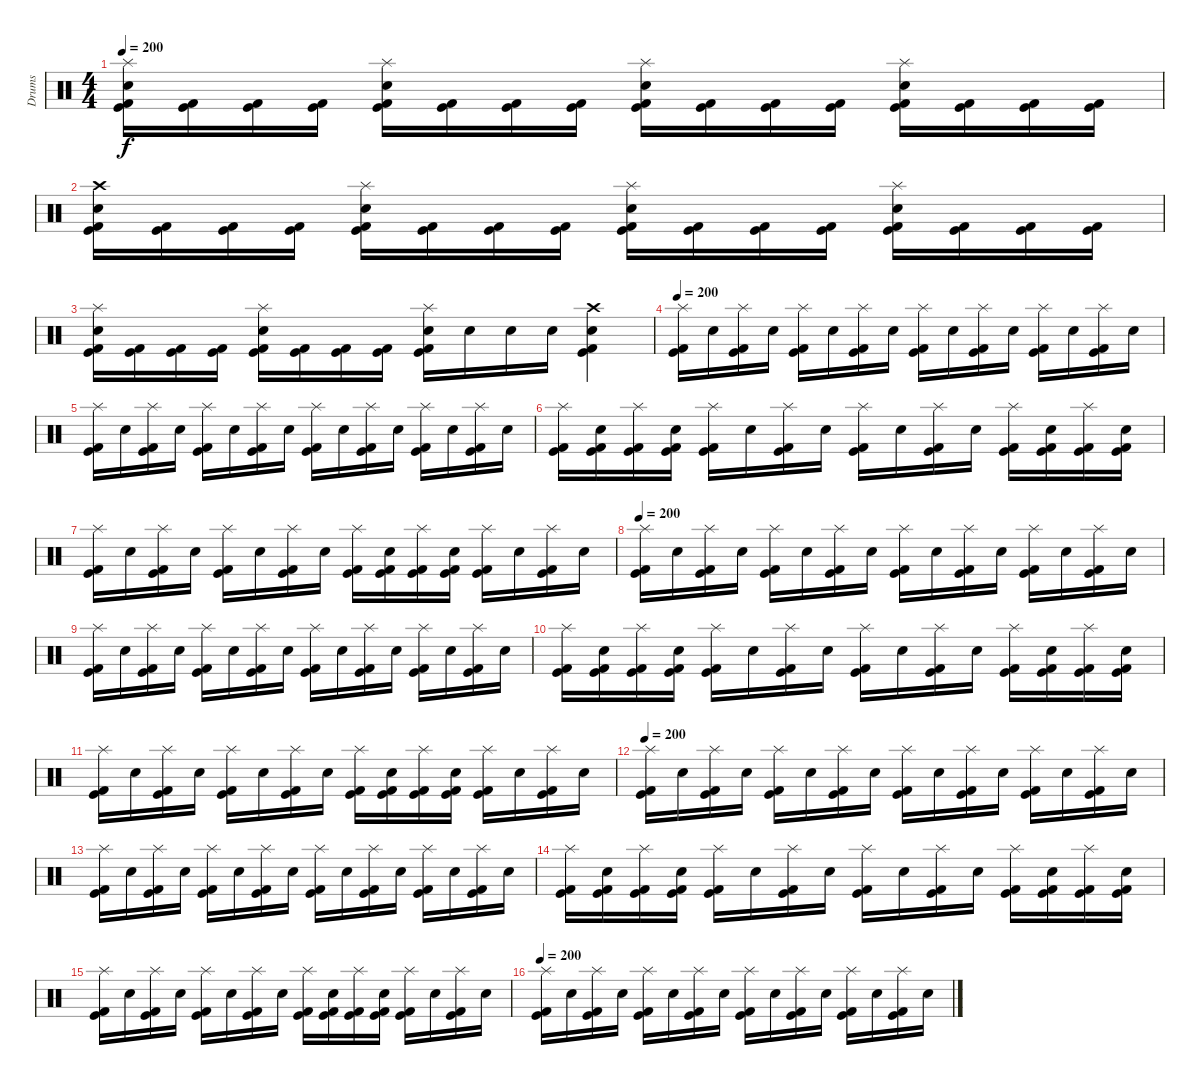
\track ("Drums" "Drums") {instrument percussion}
\staff {score}
\articulation defaults
\ts (4 4)
\tempo 200
\clef neutral
\ks c
("Splash (hit)" "Electric Snare (hit)" "Kick (hit)" "Kick (hit) 2").16{dy f} ("Kick (hit)" "Kick (hit) 2").16 ("Kick (hit)" "Kick (hit) 2").16 ("Kick (hit)" "Kick (hit) 2").16 ("Splash (hit)" "Electric Snare (hit)" "Kick (hit)" "Kick (hit) 2").16 ("Kick (hit)" "Kick (hit) 2").16 ("Kick (hit)" "Kick (hit) 2").16 ("Kick (hit)" "Kick (hit) 2").16 ("Splash (hit)" "Electric Snare (hit)" "Kick (hit)" "Kick (hit) 2").16 ("Kick (hit)" "Kick (hit) 2").16 ("Kick (hit)" "Kick (hit) 2").16 ("Kick (hit)" "Kick (hit) 2").16 ("Splash (hit)" "Electric Snare (hit)" "Kick (hit)" "Kick (hit) 2").16 ("Kick (hit)" "Kick (hit) 2").16 ("Kick (hit)" "Kick (hit) 2").16 ("Kick (hit)" "Kick (hit) 2").16 |
("Crash high (hit)" "Electric Snare (hit)" "Kick (hit)" "Kick (hit) 2").16 ("Kick (hit)" "Kick (hit) 2").16 ("Kick (hit)" "Kick (hit) 2").16 ("Kick (hit)" "Kick (hit) 2").16 ("Splash (hit)" "Electric Snare (hit)" "Kick (hit)" "Kick (hit) 2").16 ("Kick (hit)" "Kick (hit) 2").16 ("Kick (hit)" "Kick (hit) 2").16 ("Kick (hit)" "Kick (hit) 2").16 ("Splash (hit)" "Electric Snare (hit)" "Kick (hit)" "Kick (hit) 2").16 ("Kick (hit)" "Kick (hit) 2").16 ("Kick (hit)" "Kick (hit) 2").16 ("Kick (hit)" "Kick (hit) 2").16 ("Splash (hit)" "Electric Snare (hit)" "Kick (hit)" "Kick (hit) 2").16 ("Kick (hit)" "Kick (hit) 2").16 ("Kick (hit)" "Kick (hit) 2").16 ("Kick (hit)" "Kick (hit) 2").16 |
("Splash (hit)" "Electric Snare (hit)" "Kick (hit)" "Kick (hit) 2").16 ("Kick (hit)" "Kick (hit) 2").16 ("Kick (hit)" "Kick (hit) 2").16 ("Kick (hit)" "Kick (hit) 2").16 ("Splash (hit)" "Electric Snare (hit)" "Kick (hit)" "Kick (hit) 2").16 ("Kick (hit)" "Kick (hit) 2").16 ("Kick (hit)" "Kick (hit) 2").16 ("Kick (hit)" "Kick (hit) 2").16 ("Splash (hit)" "Electric Snare (hit)" "Kick (hit)" "Kick (hit) 2").16 "Electric Snare (hit)".16 "Electric Snare (hit)".16 "Electric Snare (hit)".16 ("Crash high (hit)" "Electric Snare (hit)" "Kick (hit)" "Kick (hit) 2").4 |
\tempo 200
("Splash (hit)" "Kick (hit)" "Kick (hit) 2").16 "Electric Snare (hit)".16 ("Splash (hit)" "Kick (hit)" "Kick (hit) 2").16 "Electric Snare (hit)".16 ("Splash (hit)" "Kick (hit)" "Kick (hit) 2").16 "Electric Snare (hit)".16 ("Splash (hit)" "Kick (hit)" "Kick (hit) 2").16 "Electric Snare (hit)".16 ("Splash (hit)" "Kick (hit)" "Kick (hit) 2").16 "Electric Snare (hit)".16 ("Splash (hit)" "Kick (hit)" "Kick (hit) 2").16 "Electric Snare (hit)".16 ("Splash (hit)" "Kick (hit)" "Kick (hit) 2").16 "Electric Snare (hit)".16 ("Splash (hit)" "Kick (hit)" "Kick (hit) 2").16 "Electric Snare (hit)".16 |
("Splash (hit)" "Kick (hit)" "Kick (hit) 2").16 "Electric Snare (hit)".16 ("Splash (hit)" "Kick (hit)" "Kick (hit) 2").16 "Electric Snare (hit)".16 ("Splash (hit)" "Kick (hit)" "Kick (hit) 2").16 "Electric Snare (hit)".16 ("Splash (hit)" "Kick (hit)" "Kick (hit) 2").16 "Electric Snare (hit)".16 ("Splash (hit)" "Kick (hit)" "Kick (hit) 2").16 "Electric Snare (hit)".16 ("Splash (hit)" "Kick (hit)" "Kick (hit) 2").16 "Electric Snare (hit)".16 ("Splash (hit)" "Kick (hit)" "Kick (hit) 2").16 "Electric Snare (hit)".16 ("Splash (hit)" "Kick (hit)" "Kick (hit) 2").16 "Electric Snare (hit)".16 |
("Splash (hit)" "Kick (hit)" "Kick (hit) 2").16 ("Electric Snare (hit)" "Kick (hit)" "Kick (hit) 2").16 ("Splash (hit)" "Kick (hit)" "Kick (hit) 2").16 ("Electric Snare (hit)" "Kick (hit)" "Kick (hit) 2").16 ("Splash (hit)" "Kick (hit)" "Kick (hit) 2").16 "Electric Snare (hit)".16 ("Splash (hit)" "Kick (hit)" "Kick (hit) 2").16 "Electric Snare (hit)".16 ("Splash (hit)" "Kick (hit)" "Kick (hit) 2").16 "Electric Snare (hit)".16 ("Splash (hit)" "Kick (hit)" "Kick (hit) 2").16 "Electric Snare (hit)".16 ("Splash (hit)" "Kick (hit)" "Kick (hit) 2").16 ("Electric Snare (hit)" "Kick (hit)" "Kick (hit) 2").16 ("Splash (hit)" "Kick (hit)" "Kick (hit) 2").16 ("Electric Snare (hit)" "Kick (hit)" "Kick (hit) 2").16 |
("Splash (hit)" "Kick (hit)" "Kick (hit) 2").16 "Electric Snare (hit)".16 ("Splash (hit)" "Kick (hit)" "Kick (hit) 2").16 "Electric Snare (hit)".16 ("Splash (hit)" "Kick (hit)" "Kick (hit) 2").16 "Electric Snare (hit)".16 ("Splash (hit)" "Kick (hit)" "Kick (hit) 2").16 "Electric Snare (hit)".16 ("Splash (hit)" "Kick (hit)" "Kick (hit) 2").16 ("Electric Snare (hit)" "Kick (hit)" "Kick (hit) 2").16 ("Splash (hit)" "Kick (hit)" "Kick (hit) 2").16 ("Electric Snare (hit)" "Kick (hit)" "Kick (hit) 2").16 ("Splash (hit)" "Kick (hit)" "Kick (hit) 2").16 "Electric Snare (hit)".16 ("Splash (hit)" "Kick (hit)" "Kick (hit) 2").16 "Electric Snare (hit)".16 |
\tempo 200
("Splash (hit)" "Kick (hit)" "Kick (hit) 2").16 "Electric Snare (hit)".16 ("Splash (hit)" "Kick (hit)" "Kick (hit) 2").16 "Electric Snare (hit)".16 ("Splash (hit)" "Kick (hit)" "Kick (hit) 2").16 "Electric Snare (hit)".16 ("Splash (hit)" "Kick (hit)" "Kick (hit) 2").16 "Electric Snare (hit)".16 ("Splash (hit)" "Kick (hit)" "Kick (hit) 2").16 "Electric Snare (hit)".16 ("Splash (hit)" "Kick (hit)" "Kick (hit) 2").16 "Electric Snare (hit)".16 ("Splash (hit)" "Kick (hit)" "Kick (hit) 2").16 "Electric Snare (hit)".16 ("Splash (hit)" "Kick (hit)" "Kick (hit) 2").16 "Electric Snare (hit)".16 |
("Splash (hit)" "Kick (hit)" "Kick (hit) 2").16 "Electric Snare (hit)".16 ("Splash (hit)" "Kick (hit)" "Kick (hit) 2").16 "Electric Snare (hit)".16 ("Splash (hit)" "Kick (hit)" "Kick (hit) 2").16 "Electric Snare (hit)".16 ("Splash (hit)" "Kick (hit)" "Kick (hit) 2").16 "Electric Snare (hit)".16 ("Splash (hit)" "Kick (hit)" "Kick (hit) 2").16 "Electric Snare (hit)".16 ("Splash (hit)" "Kick (hit)" "Kick (hit) 2").16 "Electric Snare (hit)".16 ("Splash (hit)" "Kick (hit)" "Kick (hit) 2").16 "Electric Snare (hit)".16 ("Splash (hit)" "Kick (hit)" "Kick (hit) 2").16 "Electric Snare (hit)".16 |
("Splash (hit)" "Kick (hit)" "Kick (hit) 2").16 ("Electric Snare (hit)" "Kick (hit)" "Kick (hit) 2").16 ("Splash (hit)" "Kick (hit)" "Kick (hit) 2").16 ("Electric Snare (hit)" "Kick (hit)" "Kick (hit) 2").16 ("Splash (hit)" "Kick (hit)" "Kick (hit) 2").16 "Electric Snare (hit)".16 ("Splash (hit)" "Kick (hit)" "Kick (hit) 2").16 "Electric Snare (hit)".16 ("Splash (hit)" "Kick (hit)" "Kick (hit) 2").16 "Electric Snare (hit)".16 ("Splash (hit)" "Kick (hit)" "Kick (hit) 2").16 "Electric Snare (hit)".16 ("Splash (hit)" "Kick (hit)" "Kick (hit) 2").16 ("Electric Snare (hit)" "Kick (hit)" "Kick (hit) 2").16 ("Splash (hit)" "Kick (hit)" "Kick (hit) 2").16 ("Electric Snare (hit)" "Kick (hit)" "Kick (hit) 2").16 |
("Splash (hit)" "Kick (hit)" "Kick (hit) 2").16 "Electric Snare (hit)".16 ("Splash (hit)" "Kick (hit)" "Kick (hit) 2").16 "Electric Snare (hit)".16 ("Splash (hit)" "Kick (hit)" "Kick (hit) 2").16 "Electric Snare (hit)".16 ("Splash (hit)" "Kick (hit)" "Kick (hit) 2").16 "Electric Snare (hit)".16 ("Splash (hit)" "Kick (hit)" "Kick (hit) 2").16 ("Electric Snare (hit)" "Kick (hit)" "Kick (hit) 2").16 ("Splash (hit)" "Kick (hit)" "Kick (hit) 2").16 ("Electric Snare (hit)" "Kick (hit)" "Kick (hit) 2").16 ("Splash (hit)" "Kick (hit)" "Kick (hit) 2").16 "Electric Snare (hit)".16 ("Splash (hit)" "Kick (hit)" "Kick (hit) 2").16 "Electric Snare (hit)".16 |
\tempo 200
("Splash (hit)" "Kick (hit)" "Kick (hit) 2").16 "Electric Snare (hit)".16 ("Splash (hit)" "Kick (hit)" "Kick (hit) 2").16 "Electric Snare (hit)".16 ("Splash (hit)" "Kick (hit)" "Kick (hit) 2").16 "Electric Snare (hit)".16 ("Splash (hit)" "Kick (hit)" "Kick (hit) 2").16 "Electric Snare (hit)".16 ("Splash (hit)" "Kick (hit)" "Kick (hit) 2").16 "Electric Snare (hit)".16 ("Splash (hit)" "Kick (hit)" "Kick (hit) 2").16 "Electric Snare (hit)".16 ("Splash (hit)" "Kick (hit)" "Kick (hit) 2").16 "Electric Snare (hit)".16 ("Splash (hit)" "Kick (hit)" "Kick (hit) 2").16 "Electric Snare (hit)".16 |
("Splash (hit)" "Kick (hit)" "Kick (hit) 2").16 "Electric Snare (hit)".16 ("Splash (hit)" "Kick (hit)" "Kick (hit) 2").16 "Electric Snare (hit)".16 ("Splash (hit)" "Kick (hit)" "Kick (hit) 2").16 "Electric Snare (hit)".16 ("Splash (hit)" "Kick (hit)" "Kick (hit) 2").16 "Electric Snare (hit)".16 ("Splash (hit)" "Kick (hit)" "Kick (hit) 2").16 "Electric Snare (hit)".16 ("Splash (hit)" "Kick (hit)" "Kick (hit) 2").16 "Electric Snare (hit)".16 ("Splash (hit)" "Kick (hit)" "Kick (hit) 2").16 "Electric Snare (hit)".16 ("Splash (hit)" "Kick (hit)" "Kick (hit) 2").16 "Electric Snare (hit)".16 |
("Splash (hit)" "Kick (hit)" "Kick (hit) 2").16 ("Electric Snare (hit)" "Kick (hit)" "Kick (hit) 2").16 ("Splash (hit)" "Kick (hit)" "Kick (hit) 2").16 ("Electric Snare (hit)" "Kick (hit)" "Kick (hit) 2").16 ("Splash (hit)" "Kick (hit)" "Kick (hit) 2").16 "Electric Snare (hit)".16 ("Splash (hit)" "Kick (hit)" "Kick (hit) 2").16 "Electric Snare (hit)".16 ("Splash (hit)" "Kick (hit)" "Kick (hit) 2").16 "Electric Snare (hit)".16 ("Splash (hit)" "Kick (hit)" "Kick (hit) 2").16 "Electric Snare (hit)".16 ("Splash (hit)" "Kick (hit)" "Kick (hit) 2").16 ("Electric Snare (hit)" "Kick (hit)" "Kick (hit) 2").16 ("Splash (hit)" "Kick (hit)" "Kick (hit) 2").16 ("Electric Snare (hit)" "Kick (hit)" "Kick (hit) 2").16 |
("Splash (hit)" "Kick (hit)" "Kick (hit) 2").16 "Electric Snare (hit)".16 ("Splash (hit)" "Kick (hit)" "Kick (hit) 2").16 "Electric Snare (hit)".16 ("Splash (hit)" "Kick (hit)" "Kick (hit) 2").16 "Electric Snare (hit)".16 ("Splash (hit)" "Kick (hit)" "Kick (hit) 2").16 "Electric Snare (hit)".16 ("Splash (hit)" "Kick (hit)" "Kick (hit) 2").16 ("Electric Snare (hit)" "Kick (hit)" "Kick (hit) 2").16 ("Splash (hit)" "Kick (hit)" "Kick (hit) 2").16 ("Electric Snare (hit)" "Kick (hit)" "Kick (hit) 2").16 ("Splash (hit)" "Kick (hit)" "Kick (hit) 2").16 "Electric Snare (hit)".16 ("Splash (hit)" "Kick (hit)" "Kick (hit) 2").16 "Electric Snare (hit)".16 |
\tempo 200
("Splash (hit)" "Kick (hit)" "Kick (hit) 2").16 "Electric Snare (hit)".16 ("Splash (hit)" "Kick (hit)" "Kick (hit) 2").16 "Electric Snare (hit)".16 ("Splash (hit)" "Kick (hit)" "Kick (hit) 2").16 "Electric Snare (hit)".16 ("Splash (hit)" "Kick (hit)" "Kick (hit) 2").16 "Electric Snare (hit)".16 ("Splash (hit)" "Kick (hit)" "Kick (hit) 2").16 "Electric Snare (hit)".16 ("Splash (hit)" "Kick (hit)" "Kick (hit) 2").16 "Electric Snare (hit)".16 ("Splash (hit)" "Kick (hit)" "Kick (hit) 2").16 "Electric Snare (hit)".16 ("Splash (hit)" "Kick (hit)" "Kick (hit) 2").16 "Electric Snare (hit)".16
